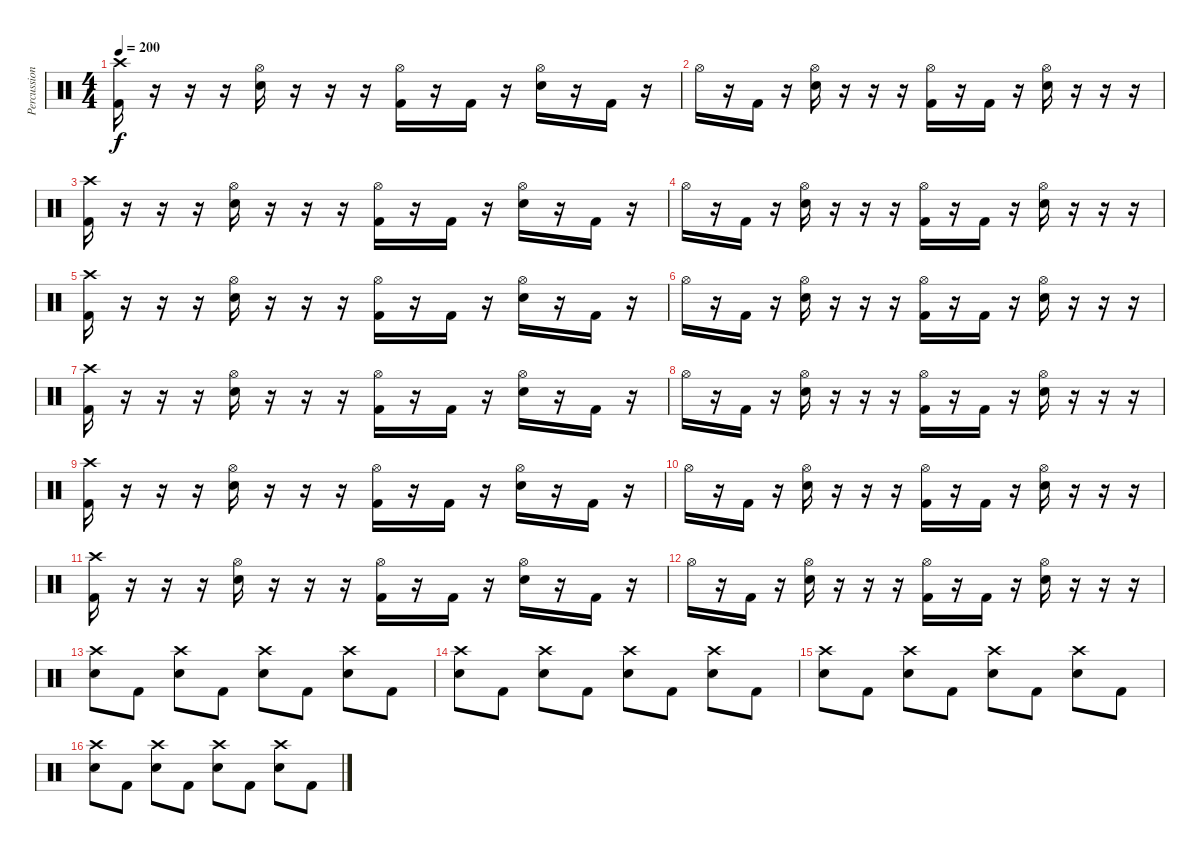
\track ("Percussion" "Percussion") {instrument percussion}
\staff {score}
\articulation defaults
\ts (4 4)
\tempo 200
\clef neutral
\ks c
("Crash high (hit)" "Kick (hit) 2").16{dy f} r.16 r.16 r.16 ("Hi-Hat (open)" "Snare (hit) 2").16 r.16 r.16 r.16 ("Hi-Hat (open)" "Kick (hit) 2").16 r.16 "Kick (hit) 2".16 r.16 ("Hi-Hat (open)" "Snare (hit) 2").16 r.16 "Kick (hit) 2".16 r.16 |
"Hi-Hat (open)".16 r.16 "Kick (hit) 2".16 r.16 ("Hi-Hat (open)" "Snare (hit) 2").16 r.16 r.16 r.16 ("Hi-Hat (open)" "Kick (hit) 2").16 r.16 "Kick (hit) 2".16 r.16 ("Hi-Hat (open)" "Snare (hit) 2").16 r.16 r.16 r.16 |
("Crash high (hit)" "Kick (hit) 2").16 r.16 r.16 r.16 ("Hi-Hat (open)" "Snare (hit) 2").16 r.16 r.16 r.16 ("Hi-Hat (open)" "Kick (hit) 2").16 r.16 "Kick (hit) 2".16 r.16 ("Hi-Hat (open)" "Snare (hit) 2").16 r.16 "Kick (hit) 2".16 r.16 |
"Hi-Hat (open)".16 r.16 "Kick (hit) 2".16 r.16 ("Hi-Hat (open)" "Snare (hit) 2").16 r.16 r.16 r.16 ("Hi-Hat (open)" "Kick (hit) 2").16 r.16 "Kick (hit) 2".16 r.16 ("Hi-Hat (open)" "Snare (hit) 2").16 r.16 r.16 r.16 |
("Crash high (hit)" "Kick (hit) 2").16 r.16 r.16 r.16 ("Hi-Hat (open)" "Snare (hit) 2").16 r.16 r.16 r.16 ("Hi-Hat (open)" "Kick (hit) 2").16 r.16 "Kick (hit) 2".16 r.16 ("Hi-Hat (open)" "Snare (hit) 2").16 r.16 "Kick (hit) 2".16 r.16 |
"Hi-Hat (open)".16 r.16 "Kick (hit) 2".16 r.16 ("Hi-Hat (open)" "Snare (hit) 2").16 r.16 r.16 r.16 ("Hi-Hat (open)" "Kick (hit) 2").16 r.16 "Kick (hit) 2".16 r.16 ("Hi-Hat (open)" "Snare (hit) 2").16 r.16 r.16 r.16 |
("Crash high (hit)" "Kick (hit) 2").16 r.16 r.16 r.16 ("Hi-Hat (open)" "Snare (hit) 2").16 r.16 r.16 r.16 ("Hi-Hat (open)" "Kick (hit) 2").16 r.16 "Kick (hit) 2".16 r.16 ("Hi-Hat (open)" "Snare (hit) 2").16 r.16 "Kick (hit) 2".16 r.16 |
"Hi-Hat (open)".16 r.16 "Kick (hit) 2".16 r.16 ("Hi-Hat (open)" "Snare (hit) 2").16 r.16 r.16 r.16 ("Hi-Hat (open)" "Kick (hit) 2").16 r.16 "Kick (hit) 2".16 r.16 ("Hi-Hat (open)" "Snare (hit) 2").16 r.16 r.16 r.16 |
("Crash high (hit)" "Kick (hit) 2").16 r.16 r.16 r.16 ("Hi-Hat (open)" "Snare (hit) 2").16 r.16 r.16 r.16 ("Hi-Hat (open)" "Kick (hit) 2").16 r.16 "Kick (hit) 2".16 r.16 ("Hi-Hat (open)" "Snare (hit) 2").16 r.16 "Kick (hit) 2".16 r.16 |
"Hi-Hat (open)".16 r.16 "Kick (hit) 2".16 r.16 ("Hi-Hat (open)" "Snare (hit) 2").16 r.16 r.16 r.16 ("Hi-Hat (open)" "Kick (hit) 2").16 r.16 "Kick (hit) 2".16 r.16 ("Hi-Hat (open)" "Snare (hit) 2").16 r.16 r.16 r.16 |
("Crash high (hit)" "Kick (hit) 2").16 r.16 r.16 r.16 ("Hi-Hat (open)" "Snare (hit) 2").16 r.16 r.16 r.16 ("Hi-Hat (open)" "Kick (hit) 2").16 r.16 "Kick (hit) 2".16 r.16 ("Hi-Hat (open)" "Snare (hit) 2").16 r.16 "Kick (hit) 2".16 r.16 |
"Hi-Hat (open)".16 r.16 "Kick (hit) 2".16 r.16 ("Hi-Hat (open)" "Snare (hit) 2").16 r.16 r.16 r.16 ("Hi-Hat (open)" "Kick (hit) 2").16 r.16 "Kick (hit) 2".16 r.16 ("Hi-Hat (open)" "Snare (hit) 2").16 r.16 r.16 r.16 |
("Crash high (hit)" "Snare (hit) 2").8 "Kick (hit) 2".8 ("Crash high (hit)" "Snare (hit) 2").8 "Kick (hit) 2".8 ("Crash high (hit)" "Snare (hit) 2").8 "Kick (hit) 2".8 ("Crash high (hit)" "Snare (hit) 2").8 "Kick (hit) 2".8 |
("Crash high (hit)" "Snare (hit) 2").8 "Kick (hit) 2".8 ("Crash high (hit)" "Snare (hit) 2").8 "Kick (hit) 2".8 ("Crash high (hit)" "Snare (hit) 2").8 "Kick (hit) 2".8 ("Crash high (hit)" "Snare (hit) 2").8 "Kick (hit) 2".8 |
("Crash high (hit)" "Snare (hit) 2").8 "Kick (hit) 2".8 ("Crash high (hit)" "Snare (hit) 2").8 "Kick (hit) 2".8 ("Crash high (hit)" "Snare (hit) 2").8 "Kick (hit) 2".8 ("Crash high (hit)" "Snare (hit) 2").8 "Kick (hit) 2".8 |
("Crash high (hit)" "Snare (hit) 2").8 "Kick (hit) 2".8 ("Crash high (hit)" "Snare (hit) 2").8 "Kick (hit) 2".8 ("Crash high (hit)" "Snare (hit) 2").8 "Kick (hit) 2".8 ("Crash high (hit)" "Snare (hit) 2").8 "Kick (hit) 2".8
